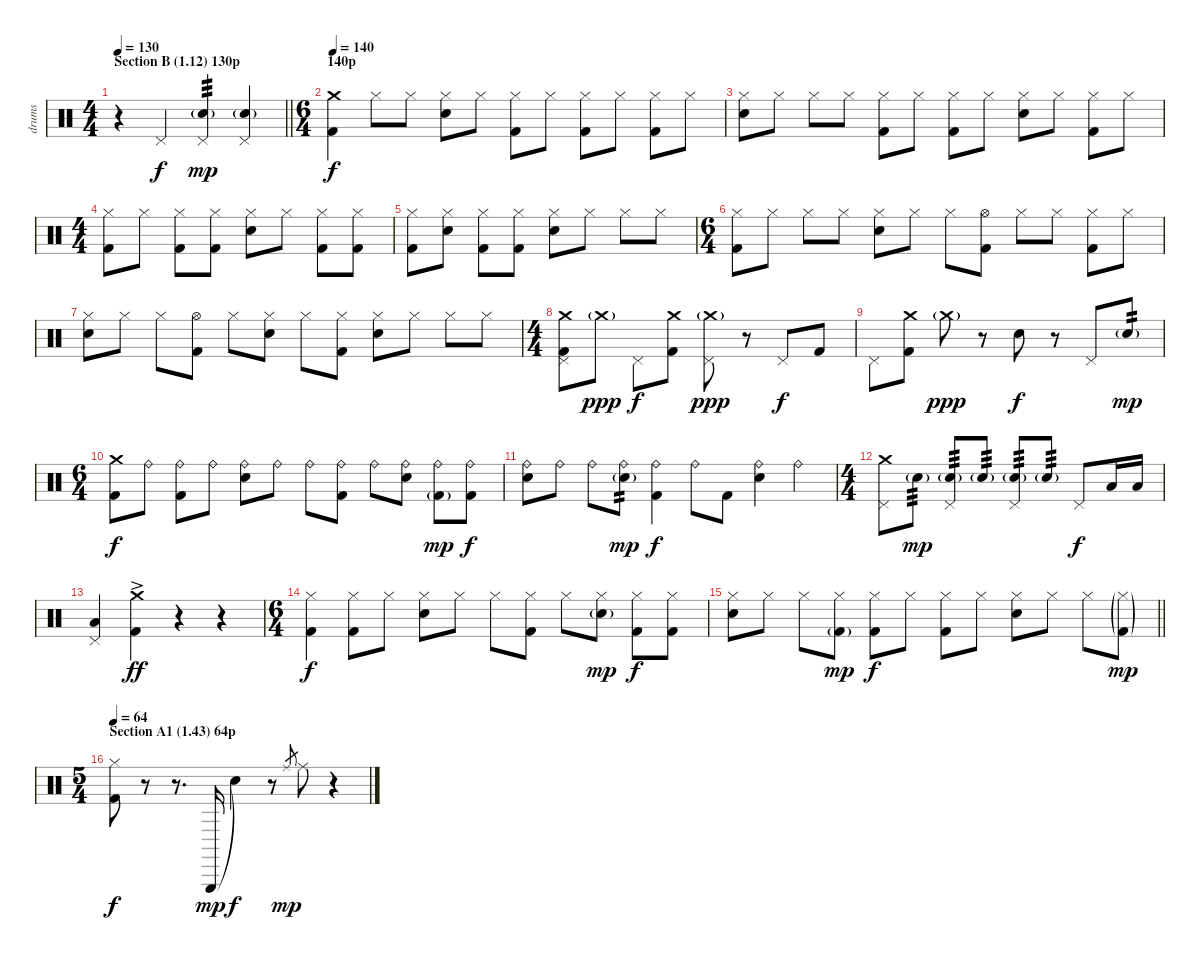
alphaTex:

\track ("drums" "drums") {instrument percussion}
\staff {score}
\articulation defaults
\ts (4 4)
\section ("" "Section B (1.12) 130p")
\tempo 130
\clef neutral
\barLineRight lightlight
\ks c
r.4{dy mp} "Pedal Hi-Hat (hit)".4{dy f} ("Pedal Hi-Hat (hit)" "Electric Snare (hit)"{g}).4{tp 3 dy mp} ("Pedal Hi-Hat (hit)" "Electric Snare (hit)"{g}).4 |
\ts (6 4)
\section ("" "140p")
\tempo 140
("Crash medium (hit)" "Kick (hit) 2").4{dy f} "Hi-Hat (closed)".8 "Hi-Hat (closed)".8 ("Hi-Hat (closed)" "Electric Snare (hit)").8 "Hi-Hat (closed)".8 ("Hi-Hat (closed)" "Kick (hit) 2").8 "Hi-Hat (closed)".8 ("Hi-Hat (closed)" "Kick (hit) 2").8 "Hi-Hat (closed)".8 ("Hi-Hat (closed)" "Kick (hit) 2").8 "Hi-Hat (closed)".8 |
("Hi-Hat (closed)" "Electric Snare (hit)").8 "Hi-Hat (closed)".8 "Hi-Hat (closed)".8 "Hi-Hat (closed)".8 ("Hi-Hat (closed)" "Kick (hit) 2").8 "Hi-Hat (closed)".8 ("Hi-Hat (closed)" "Kick (hit) 2").8 "Hi-Hat (closed)".8 ("Hi-Hat (closed)" "Electric Snare (hit)").8 "Hi-Hat (closed)".8 ("Hi-Hat (closed)" "Kick (hit) 2").8 "Hi-Hat (closed)".8 |
\ts (4 4)
("Hi-Hat (closed)" "Kick (hit) 2").8 "Hi-Hat (closed)".8 ("Hi-Hat (closed)" "Kick (hit) 2").8 ("Hi-Hat (closed)" "Kick (hit) 2").8 ("Hi-Hat (closed)" "Electric Snare (hit)").8 "Hi-Hat (closed)".8 ("Hi-Hat (closed)" "Kick (hit) 2").8 ("Hi-Hat (closed)" "Kick (hit) 2").8 |
("Hi-Hat (closed)" "Kick (hit) 2").8 ("Hi-Hat (closed)" "Electric Snare (hit)").8 ("Hi-Hat (closed)" "Kick (hit) 2").8 ("Hi-Hat (closed)" "Kick (hit) 2").8 ("Hi-Hat (closed)" "Electric Snare (hit)").8 "Hi-Hat (closed)".8 "Hi-Hat (closed)".8 "Hi-Hat (closed)".8 |
\ts (6 4)
("Hi-Hat (closed)" "Kick (hit) 2").8 "Hi-Hat (closed)".8 "Hi-Hat (closed)".8 "Hi-Hat (closed)".8 ("Hi-Hat (closed)" "Electric Snare (hit)").8 "Hi-Hat (closed)".8 "Hi-Hat (closed)".8 ("Hi-Hat (open)" "Kick (hit) 2").8 "Hi-Hat (closed)".8 "Hi-Hat (closed)".8 ("Hi-Hat (closed)" "Kick (hit) 2").8 "Hi-Hat (closed)".8 |
("Hi-Hat (closed)" "Electric Snare (hit)").8 "Hi-Hat (closed)".8 "Hi-Hat (closed)".8 ("Hi-Hat (open)" "Kick (hit) 2").8 "Hi-Hat (closed)".8 ("Hi-Hat (closed)" "Electric Snare (hit)").8 "Hi-Hat (closed)".8 ("Hi-Hat (closed)" "Kick (hit) 2").8 ("Hi-Hat (closed)" "Electric Snare (hit)").8 "Hi-Hat (closed)".8 "Hi-Hat (closed)".8 "Hi-Hat (closed)".8 |
\ts (4 4)
("Pedal Hi-Hat (hit)" "Crash medium (hit)" "Kick (hit) 2").8 "Crash medium (hit)"{g}.8{dy ppp} "Pedal Hi-Hat (hit)".8{dy f} ("Crash medium (hit)" "Kick (hit) 2").8 ("Pedal Hi-Hat (hit)" "Crash medium (hit)"{g}).8{dy ppp} r.8 "Pedal Hi-Hat (hit)".8{dy f} "Kick (hit) 2".8 |
"Pedal Hi-Hat (hit)".8 ("Crash medium (hit)" "Kick (hit) 2").8 "Crash medium (hit)"{g}.8{dy ppp} r.8 "Electric Snare (hit)".8{dy f} r.8 "Pedal Hi-Hat (hit)".8 "Electric Snare (hit)"{g}.8{tp 2 dy mp} |
\ts (6 4)
("Crash medium (hit)" "Kick (hit) 2").8{dy f} "Ride (bell)".8 ("Ride (bell)" "Kick (hit) 2").8 "Ride (bell)".8 ("Ride (bell)" "Electric Snare (hit)").8 "Ride (bell)".8 "Ride (bell)".8 ("Ride (bell)" "Kick (hit) 2").8 "Ride (bell)".8 ("Ride (bell)" "Electric Snare (hit)").8 ("Ride (bell)" "Kick (hit) 2"{g}).8{dy mp} ("Ride (bell)" "Kick (hit) 2").8{dy f} |
("Ride (bell)" "Electric Snare (hit)").8 "Ride (bell)".8 "Ride (bell)".8 ("Ride (bell)" "Electric Snare (hit)"{g}).8{tp 2 dy mp} ("Ride (bell)" "Kick (hit) 2").4{dy f} "Ride (bell)".8 "Kick (hit) 2".8 ("Ride (bell)" "Electric Snare (hit)").4 "Ride (bell)".4 |
\ts (4 4)
("Pedal Hi-Hat (hit)" "Crash medium (hit)").8 "Electric Snare (hit)"{g}.8{tp 3 dy mp} ("Pedal Hi-Hat (hit)" "Electric Snare (hit)"{g}).8{tp 3} "Electric Snare (hit)"{g}.8{tp 3} ("Pedal Hi-Hat (hit)" "Electric Snare (hit)"{g}).8{tp 3} "Electric Snare (hit)"{g}.8{tp 3} "Pedal Hi-Hat (hit)".8{dy f} "Low Tom (hit)".16 "Low Tom (hit)".16 |
("Pedal Hi-Hat (hit)" "Low Tom (hit)").4 ("Crash medium (hit)"{ac} "Kick (hit) 2").4{dy ff} r.4 r.4 |
\ts (6 4)
("Hi-Hat (closed)" "Kick (hit) 2").4{dy f} ("Hi-Hat (closed)" "Kick (hit) 2").8 "Hi-Hat (closed)".8 ("Hi-Hat (closed)" "Electric Snare (hit)").8 "Hi-Hat (closed)".8 "Hi-Hat (closed)".8 ("Hi-Hat (closed)" "Kick (hit) 2").8 "Hi-Hat (closed)".8 ("Hi-Hat (closed)" "Electric Snare (hit)"{g}).8{dy mp} ("Hi-Hat (closed)" "Kick (hit) 2").8{dy f} ("Hi-Hat (closed)" "Kick (hit) 2").8 |
\barLineRight lightlight
("Hi-Hat (closed)" "Electric Snare (hit)").8 "Hi-Hat (closed)".8 "Hi-Hat (closed)".8 ("Hi-Hat (closed)" "Kick (hit) 2"{g}).8{dy mp} ("Hi-Hat (closed)" "Kick (hit) 2").8{dy f} "Hi-Hat (closed)".8 ("Hi-Hat (closed)" "Kick (hit) 2").8 "Hi-Hat (closed)".8 ("Hi-Hat (closed)" "Electric Snare (hit)").8 "Hi-Hat (closed)".8 "Hi-Hat (closed)".8 ("Hi-Hat (closed)"{g} "Kick (hit) 2"{g}).8{dy mp} |
\ts (5 4)
\section ("" "Section A1 (1.43) 64p")
\tempo 64
("Hi-Hat (closed)" "Kick (hit) 2").8{dy f} r.8 r.8{d} "Triangle (hit)".16{dy mp} "Snare (hit)"{t}.4{dy f} r.8 "Ride (middle)".8{gr dy mp} "Ride (middle)".8 r.4
